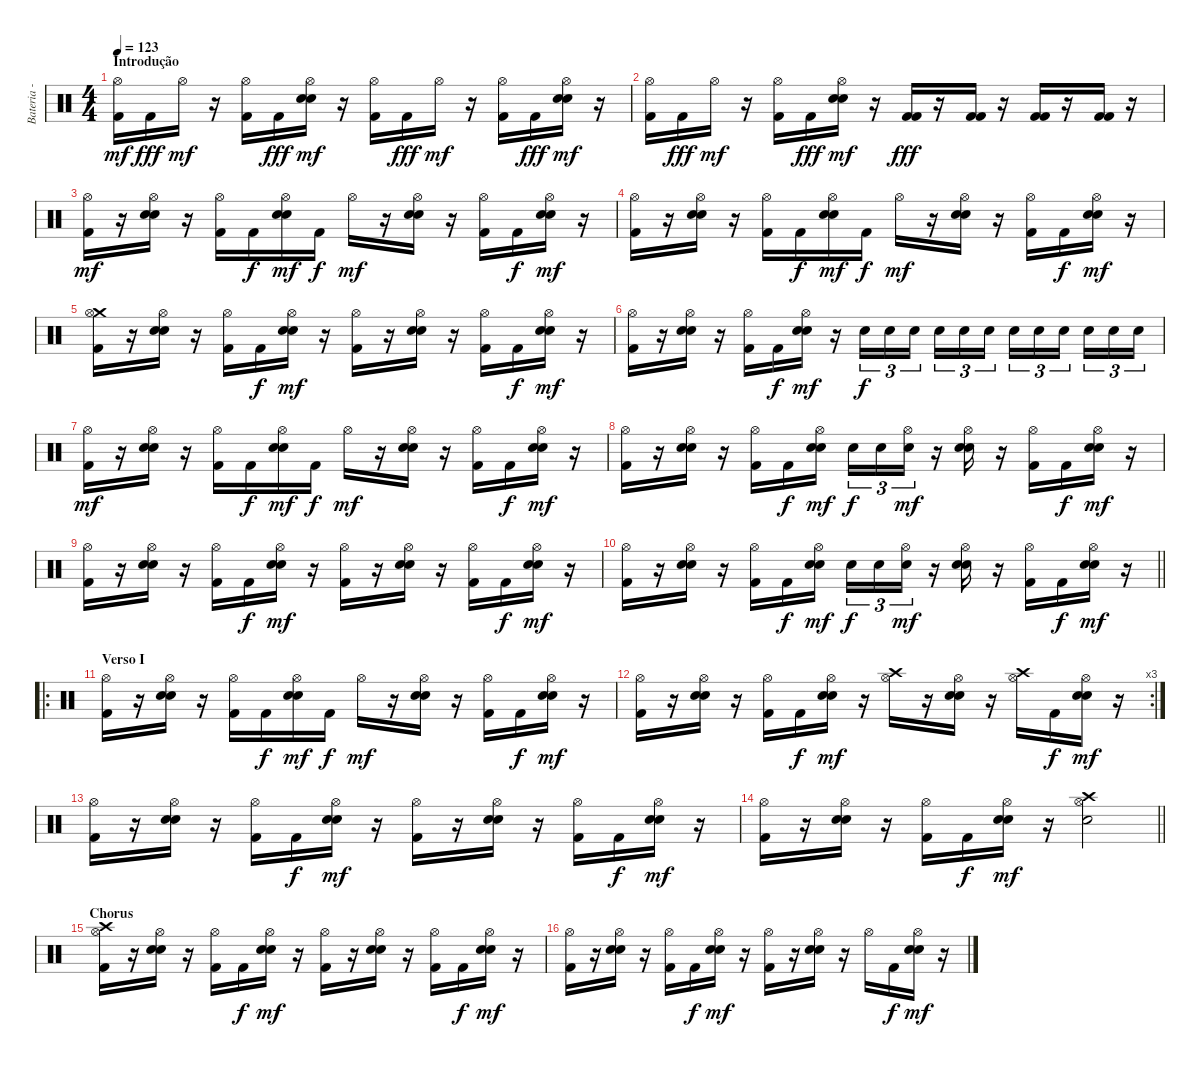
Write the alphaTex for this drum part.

\track ("Bateria - Larzon" "Bateria - ") {instrument percussion}
\staff {score}
\articulation defaults
\ts (4 4)
\section ("" "Introdução")
\tempo 123
\clef neutral
\ks c
("Kick (hit) 2" "Hi-Hat (open)").16{dy mf} "Kick (hit) 2".16{dy fff} "Hi-Hat (open)".16{dy mf} r.16 ("Kick (hit) 2" "Hi-Hat (open)").16 "Kick (hit) 2".16{dy fff} ("Electric Snare (hit)" "Electric Snare (hit)" "Hi-Hat (open)").16{dy mf} r.16 ("Kick (hit) 2" "Hi-Hat (open)").16 "Kick (hit) 2".16{dy fff} "Hi-Hat (open)".16{dy mf} r.16 ("Kick (hit) 2" "Hi-Hat (open)").16 "Kick (hit) 2".16{dy fff} ("Electric Snare (hit)" "Electric Snare (hit)" "Hi-Hat (open)").16{dy mf} r.16 |
("Kick (hit) 2" "Hi-Hat (open)").16 "Kick (hit) 2".16{dy fff} "Hi-Hat (open)".16{dy mf} r.16 ("Kick (hit) 2" "Hi-Hat (open)").16 "Kick (hit) 2".16{dy fff} ("Electric Snare (hit)" "Electric Snare (hit)" "Hi-Hat (open)").16{dy mf} r.16 ("Kick (hit) 2" "Kick (hit) 2").16{dy fff} r.16 ("Kick (hit) 2" "Kick (hit) 2").16 r.16 ("Kick (hit) 2" "Kick (hit) 2").16 r.16 ("Kick (hit) 2" "Kick (hit) 2").16 r.16 |
("Kick (hit) 2" "Hi-Hat (open)").16{dy mf} r.16 ("Electric Snare (hit)" "Electric Snare (hit)" "Hi-Hat (open)").16 r.16 ("Kick (hit) 2" "Hi-Hat (open)").16 "Kick (hit) 2".16{dy f} ("Electric Snare (hit)" "Electric Snare (hit)" "Hi-Hat (open)").16{dy mf} "Kick (hit) 2".16{dy f} "Hi-Hat (open)".16{dy mf} r.16 ("Electric Snare (hit)" "Electric Snare (hit)" "Hi-Hat (open)").16 r.16 ("Kick (hit) 2" "Hi-Hat (open)").16 "Kick (hit) 2".16{dy f} ("Electric Snare (hit)" "Electric Snare (hit)" "Hi-Hat (open)").16{dy mf} r.16 |
("Kick (hit) 2" "Hi-Hat (open)").16 r.16 ("Electric Snare (hit)" "Electric Snare (hit)" "Hi-Hat (open)").16 r.16 ("Kick (hit) 2" "Hi-Hat (open)").16 "Kick (hit) 2".16{dy f} ("Electric Snare (hit)" "Electric Snare (hit)" "Hi-Hat (open)").16{dy mf} "Kick (hit) 2".16{dy f} "Hi-Hat (open)".16{dy mf} r.16 ("Electric Snare (hit)" "Electric Snare (hit)" "Hi-Hat (open)").16 r.16 ("Kick (hit) 2" "Hi-Hat (open)").16 "Kick (hit) 2".16{dy f} ("Electric Snare (hit)" "Electric Snare (hit)" "Hi-Hat (open)").16{dy mf} r.16 |
("Kick (hit) 2" "Crash medium (hit)" "Hi-Hat (open)").16 r.16 ("Electric Snare (hit)" "Electric Snare (hit)" "Hi-Hat (open)").16 r.16 ("Kick (hit) 2" "Hi-Hat (open)").16 "Kick (hit) 2".16{dy f} ("Electric Snare (hit)" "Electric Snare (hit)" "Hi-Hat (open)").16{dy mf} r.16 ("Kick (hit) 2" "Hi-Hat (open)").16 r.16 ("Electric Snare (hit)" "Electric Snare (hit)" "Hi-Hat (open)").16 r.16 ("Kick (hit) 2" "Hi-Hat (open)").16 "Kick (hit) 2".16{dy f} ("Electric Snare (hit)" "Electric Snare (hit)" "Hi-Hat (open)").16{dy mf} r.16 |
("Kick (hit) 2" "Hi-Hat (open)").16 r.16 ("Electric Snare (hit)" "Electric Snare (hit)" "Hi-Hat (open)").16 r.16 ("Kick (hit) 2" "Hi-Hat (open)").16 "Kick (hit) 2".16{dy f} ("Electric Snare (hit)" "Electric Snare (hit)" "Hi-Hat (open)").16{dy mf} r.16 "Electric Snare (hit)".16{tu (3 2) dy f} "Electric Snare (hit)".16{tu (3 2)} "Electric Snare (hit)".16{tu (3 2)} "Electric Snare (hit)".16{tu (3 2)} "Electric Snare (hit)".16{tu (3 2)} "Electric Snare (hit)".16{tu (3 2)} "Electric Snare (hit)".16{tu (3 2)} "Electric Snare (hit)".16{tu (3 2)} "Electric Snare (hit)".16{tu (3 2)} "Electric Snare (hit)".16{tu (3 2)} "Electric Snare (hit)".16{tu (3 2)} "Electric Snare (hit)".16{tu (3 2)} |
("Kick (hit) 2" "Hi-Hat (open)").16{dy mf} r.16 ("Electric Snare (hit)" "Electric Snare (hit)" "Hi-Hat (open)").16 r.16 ("Kick (hit) 2" "Hi-Hat (open)").16 "Kick (hit) 2".16{dy f} ("Electric Snare (hit)" "Electric Snare (hit)" "Hi-Hat (open)").16{dy mf} "Kick (hit) 2".16{dy f} "Hi-Hat (open)".16{dy mf} r.16 ("Electric Snare (hit)" "Electric Snare (hit)" "Hi-Hat (open)").16 r.16 ("Kick (hit) 2" "Hi-Hat (open)").16 "Kick (hit) 2".16{dy f} ("Electric Snare (hit)" "Electric Snare (hit)" "Hi-Hat (open)").16{dy mf} r.16 |
("Kick (hit) 2" "Hi-Hat (open)").16 r.16 ("Electric Snare (hit)" "Electric Snare (hit)" "Hi-Hat (open)").16 r.16 ("Kick (hit) 2" "Hi-Hat (open)").16 "Kick (hit) 2".16{dy f} ("Electric Snare (hit)" "Electric Snare (hit)" "Hi-Hat (open)").16{dy mf} "Electric Snare (hit)".16{tu (3 2) dy f} "Electric Snare (hit)".16{tu (3 2)} ("Electric Snare (hit)" "Hi-Hat (open)").16{tu (3 2) dy mf} r.16 ("Electric Snare (hit)" "Electric Snare (hit)" "Hi-Hat (open)").16 r.16 ("Kick (hit) 2" "Hi-Hat (open)").16 "Kick (hit) 2".16{dy f} ("Electric Snare (hit)" "Electric Snare (hit)" "Hi-Hat (open)").16{dy mf} r.16 |
("Kick (hit) 2" "Hi-Hat (open)").16 r.16 ("Electric Snare (hit)" "Electric Snare (hit)" "Hi-Hat (open)").16 r.16 ("Kick (hit) 2" "Hi-Hat (open)").16 "Kick (hit) 2".16{dy f} ("Electric Snare (hit)" "Electric Snare (hit)" "Hi-Hat (open)").16{dy mf} r.16 ("Kick (hit) 2" "Hi-Hat (open)").16 r.16 ("Electric Snare (hit)" "Electric Snare (hit)" "Hi-Hat (open)").16 r.16 ("Kick (hit) 2" "Hi-Hat (open)").16 "Kick (hit) 2".16{dy f} ("Electric Snare (hit)" "Electric Snare (hit)" "Hi-Hat (open)").16{dy mf} r.16 |
\barLineRight lightlight
("Kick (hit) 2" "Hi-Hat (open)").16 r.16 ("Electric Snare (hit)" "Electric Snare (hit)" "Hi-Hat (open)").16 r.16 ("Kick (hit) 2" "Hi-Hat (open)").16 "Kick (hit) 2".16{dy f} ("Electric Snare (hit)" "Electric Snare (hit)" "Hi-Hat (open)").16{dy mf} "Electric Snare (hit)".16{tu (3 2) dy f} "Electric Snare (hit)".16{tu (3 2)} ("Electric Snare (hit)" "Hi-Hat (open)").16{tu (3 2) dy mf} r.16 ("Electric Snare (hit)" "Electric Snare (hit)" "Hi-Hat (open)").16 r.16 ("Kick (hit) 2" "Hi-Hat (open)").16 "Kick (hit) 2".16{dy f} ("Electric Snare (hit)" "Electric Snare (hit)" "Hi-Hat (open)").16{dy mf} r.16 |
\ro
\section ("" "Verso I")
("Kick (hit) 2" "Hi-Hat (open)").16 r.16 ("Electric Snare (hit)" "Electric Snare (hit)" "Hi-Hat (open)").16 r.16 ("Kick (hit) 2" "Hi-Hat (open)").16 "Kick (hit) 2".16{dy f} ("Electric Snare (hit)" "Electric Snare (hit)" "Hi-Hat (open)").16{dy mf} "Kick (hit) 2".16{dy f} "Hi-Hat (open)".16{dy mf} r.16 ("Electric Snare (hit)" "Electric Snare (hit)" "Hi-Hat (open)").16 r.16 ("Kick (hit) 2" "Hi-Hat (open)").16 "Kick (hit) 2".16{dy f} ("Electric Snare (hit)" "Electric Snare (hit)" "Hi-Hat (open)").16{dy mf} r.16 |
\rc 3
("Kick (hit) 2" "Hi-Hat (open)").16 r.16 ("Electric Snare (hit)" "Electric Snare (hit)" "Hi-Hat (open)").16 r.16 ("Kick (hit) 2" "Hi-Hat (open)").16 "Kick (hit) 2".16{dy f} ("Electric Snare (hit)" "Electric Snare (hit)" "Hi-Hat (open)").16{dy mf} r.16 ("Crash high (hit)" "Hi-Hat (open)").16 r.16 ("Electric Snare (hit)" "Electric Snare (hit)" "Hi-Hat (open)").16 r.16 ("Crash high (hit)" "Hi-Hat (open)").16 "Kick (hit) 2".16{dy f} ("Electric Snare (hit)" "Electric Snare (hit)" "Hi-Hat (open)").16{dy mf} r.16 |
("Kick (hit) 2" "Hi-Hat (open)").16 r.16 ("Electric Snare (hit)" "Electric Snare (hit)" "Hi-Hat (open)").16 r.16 ("Kick (hit) 2" "Hi-Hat (open)").16 "Kick (hit) 2".16{dy f} ("Electric Snare (hit)" "Electric Snare (hit)" "Hi-Hat (open)").16{dy mf} r.16 ("Kick (hit) 2" "Hi-Hat (open)").16 r.16 ("Electric Snare (hit)" "Electric Snare (hit)" "Hi-Hat (open)").16 r.16 ("Kick (hit) 2" "Hi-Hat (open)").16 "Kick (hit) 2".16{dy f} ("Electric Snare (hit)" "Electric Snare (hit)" "Hi-Hat (open)").16{dy mf} r.16 |
\barLineRight lightlight
("Kick (hit) 2" "Hi-Hat (open)").16 r.16 ("Electric Snare (hit)" "Electric Snare (hit)" "Hi-Hat (open)").16 r.16 ("Kick (hit) 2" "Hi-Hat (open)").16 "Kick (hit) 2".16{dy f} ("Electric Snare (hit)" "Electric Snare (hit)" "Hi-Hat (open)").16{dy mf} r.16 ("Crash high (hit)" "Electric Snare (hit)" "Hi-Hat (open)").2 |
\section ("" "Chorus")
("Kick (hit) 2" "Crash high (hit)" "Hi-Hat (open)").16 r.16 ("Electric Snare (hit)" "Electric Snare (hit)" "Hi-Hat (open)").16 r.16 ("Kick (hit) 2" "Hi-Hat (open)").16 "Kick (hit) 2".16{dy f} ("Electric Snare (hit)" "Electric Snare (hit)" "Hi-Hat (open)").16{dy mf} r.16 ("Kick (hit) 2" "Hi-Hat (open)").16 r.16 ("Electric Snare (hit)" "Electric Snare (hit)" "Hi-Hat (open)").16 r.16 ("Kick (hit) 2" "Hi-Hat (open)").16 "Kick (hit) 2".16{dy f} ("Electric Snare (hit)" "Electric Snare (hit)" "Hi-Hat (open)").16{dy mf} r.16 |
("Kick (hit) 2" "Hi-Hat (open)").16 r.16 ("Electric Snare (hit)" "Electric Snare (hit)" "Hi-Hat (open)").16 r.16 ("Kick (hit) 2" "Hi-Hat (open)").16 "Kick (hit) 2".16{dy f} ("Electric Snare (hit)" "Electric Snare (hit)" "Hi-Hat (open)").16{dy mf} r.16 ("Kick (hit) 2" "Hi-Hat (open)").16 r.16 ("Electric Snare (hit)" "Electric Snare (hit)" "Hi-Hat (open)").16 r.16 "Hi-Hat (open)".16 "Kick (hit) 2".16{dy f} ("Electric Snare (hit)" "Electric Snare (hit)" "Hi-Hat (open)").16{dy mf} r.16
